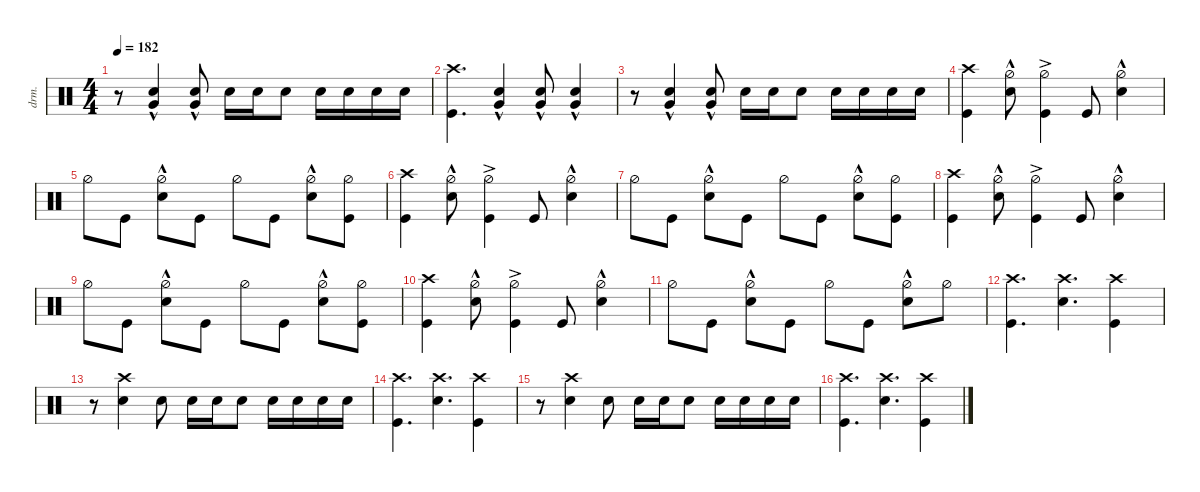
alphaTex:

\defaultSystemsLayout 4
\hideDynamics
\bracketExtendMode nobrackets
\otherSystemsTrackNameOrientation horizontal
\track ("Drums" "drm.") {defaultSystemsLayout 4 multiBarRest instrument percussion}
\staff {score}
\articulation defaults
\ts (4 4)
\tempo 182
\clef neutral
\ks c
r.8{dy f} ("Snare (hit) 2" "Very Low Tom (hit)"{hac}).4 ("Snare (hit) 2" "Very Low Tom (hit)"{hac}).8 "Snare (hit) 2".16 "Snare (hit) 2".16 "Snare (hit) 2".8 "Snare (hit) 2".16 "Snare (hit) 2".16 "Snare (hit) 2".16 "Snare (hit) 2".16 |
("Crash high (hit)" "Kick (hit)").4{d} ("Snare (hit) 2" "Very Low Tom (hit)"{hac}).4 ("Snare (hit) 2" "Very Low Tom (hit)"{hac}).8 ("Snare (hit) 2" "Very Low Tom (hit)"{hac}).4 |
r.8 ("Snare (hit) 2" "Very Low Tom (hit)"{hac}).4 ("Snare (hit) 2" "Very Low Tom (hit)"{hac}).8 "Snare (hit) 2".16 "Snare (hit) 2".16 "Snare (hit) 2".8 "Snare (hit) 2".16 "Snare (hit) 2".16 "Snare (hit) 2".16 "Snare (hit) 2".16 |
("Crash high (hit)" "Kick (hit)").4 ("Hi-Hat (half)"{hac} "Snare (hit) 2").8 ("Kick (hit)" "Hi-Hat (half)"{ac}).4 "Kick (hit)".8 ("Hi-Hat (half)"{hac} "Snare (hit) 2").4 |
"Hi-Hat (half)".8 "Kick (hit)".8 ("Hi-Hat (half)"{hac} "Snare (hit) 2").8 "Kick (hit)".8 "Hi-Hat (half)".8 "Kick (hit)".8 ("Hi-Hat (half)"{hac} "Snare (hit) 2").8 ("Kick (hit)" "Hi-Hat (half)").8 |
("Crash high (hit)" "Kick (hit)").4 ("Hi-Hat (half)"{hac} "Snare (hit) 2").8 ("Kick (hit)" "Hi-Hat (half)"{ac}).4 "Kick (hit)".8 ("Hi-Hat (half)"{hac} "Snare (hit) 2").4 |
"Hi-Hat (half)".8 "Kick (hit)".8 ("Hi-Hat (half)"{hac} "Snare (hit) 2").8 "Kick (hit)".8 "Hi-Hat (half)".8 "Kick (hit)".8 ("Hi-Hat (half)"{hac} "Snare (hit) 2").8 ("Kick (hit)" "Hi-Hat (half)").8 |
("Crash high (hit)" "Kick (hit)").4 ("Hi-Hat (half)"{hac} "Snare (hit) 2").8 ("Kick (hit)" "Hi-Hat (half)"{ac}).4 "Kick (hit)".8 ("Hi-Hat (half)"{hac} "Snare (hit) 2").4 |
"Hi-Hat (half)".8 "Kick (hit)".8 ("Hi-Hat (half)"{hac} "Snare (hit) 2").8 "Kick (hit)".8 "Hi-Hat (half)".8 "Kick (hit)".8 ("Hi-Hat (half)"{hac} "Snare (hit) 2").8 ("Kick (hit)" "Hi-Hat (half)").8 |
("Crash high (hit)" "Kick (hit)").4 ("Hi-Hat (half)"{hac} "Snare (hit) 2").8 ("Kick (hit)" "Hi-Hat (half)"{ac}).4 "Kick (hit)".8 ("Hi-Hat (half)"{hac} "Snare (hit) 2").4 |
"Hi-Hat (half)".8 "Kick (hit)".8 ("Hi-Hat (half)"{hac} "Snare (hit) 2").8 "Kick (hit)".8 "Hi-Hat (half)".8 "Kick (hit)".8 ("Hi-Hat (half)"{hac} "Snare (hit) 2").8 "Hi-Hat (half)".8 |
("Crash high (hit)" "Kick (hit)").4{d} ("Snare (hit) 2" "Crash high (hit)").4{d} ("Crash high (hit)" "Kick (hit)").4 |
r.8 ("Snare (hit) 2" "Crash high (hit)").4 "Snare (hit) 2".8 "Snare (hit) 2".16 "Snare (hit) 2".16 "Snare (hit) 2".8 "Snare (hit) 2".16 "Snare (hit) 2".16 "Snare (hit) 2".16 "Snare (hit) 2".16 |
("Crash high (hit)" "Kick (hit)").4{d} ("Snare (hit) 2" "Crash high (hit)").4{d} ("Crash high (hit)" "Kick (hit)").4 |
r.8 ("Snare (hit) 2" "Crash high (hit)").4 "Snare (hit) 2".8 "Snare (hit) 2".16 "Snare (hit) 2".16 "Snare (hit) 2".8 "Snare (hit) 2".16 "Snare (hit) 2".16 "Snare (hit) 2".16 "Snare (hit) 2".16 |
("Crash high (hit)" "Kick (hit)").4{d} ("Snare (hit) 2" "Crash high (hit)").4{d} ("Crash high (hit)" "Kick (hit)").4
